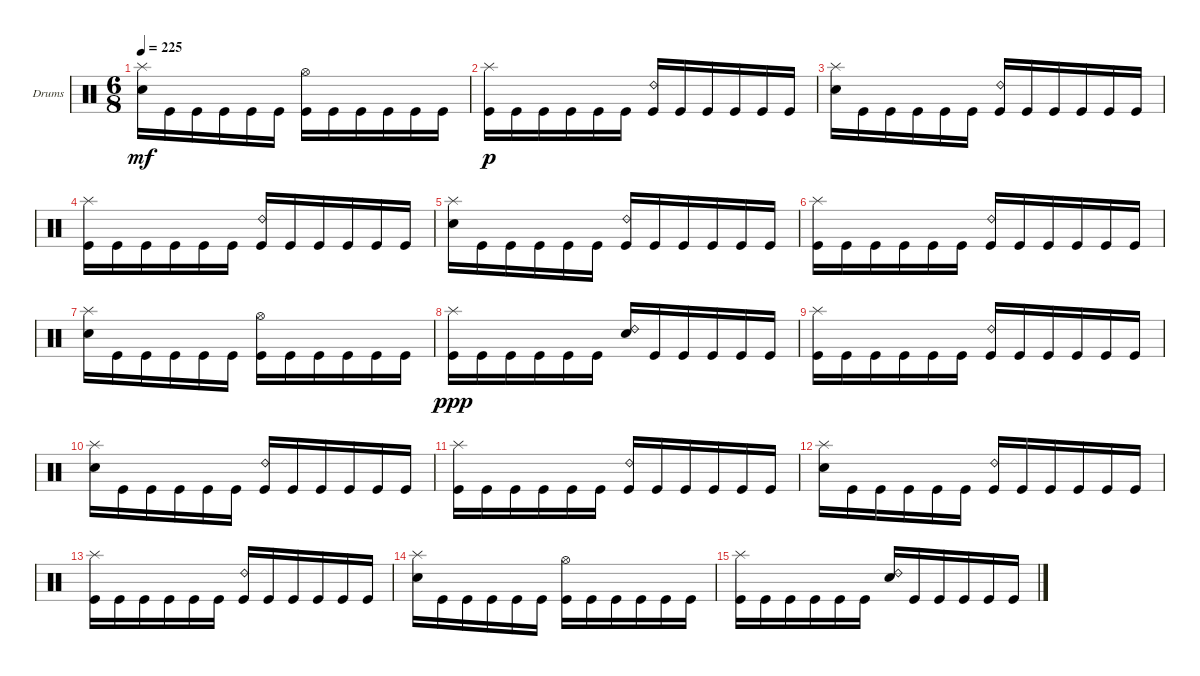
\bracketExtendMode groupsimilarinstruments
\firstSystemTrackNameOrientation horizontal
\otherSystemsTrackNameOrientation horizontal
\track ("Drumkit" "Drums") {solo instrument percussion}
\staff {score}
\articulation defaults
\ts (6 8)
\tempo 225
\clef neutral
\ks c
("Snare (hit) 2" "Splash (hit)").16{dy mf} "Kick (hit)".16 "Kick (hit)".16 "Kick (hit)".16 "Kick (hit)".16 "Kick (hit)".16 ("Kick (hit)" "Hi-Hat (open)").16 "Kick (hit)".16 "Kick (hit)".16 "Kick (hit)".16 "Kick (hit)".16 "Kick (hit)".16 |
("Kick (hit)" "Splash (hit)").16{dy p} "Kick (hit)".16 "Kick (hit)".16 "Kick (hit)".16 "Kick (hit)".16 "Kick (hit)".16 ("Kick (hit)" "Ride (bell) 2").16 "Kick (hit)".16 "Kick (hit)".16 "Kick (hit)".16 "Kick (hit)".16 "Kick (hit)".16 |
("Snare (hit) 2" "Splash (hit)").16 "Kick (hit)".16 "Kick (hit)".16 "Kick (hit)".16 "Kick (hit)".16 "Kick (hit)".16 ("Kick (hit)" "Ride (bell) 2").16 "Kick (hit)".16 "Kick (hit)".16 "Kick (hit)".16 "Kick (hit)".16 "Kick (hit)".16 |
("Kick (hit)" "Splash (hit)").16 "Kick (hit)".16 "Kick (hit)".16 "Kick (hit)".16 "Kick (hit)".16 "Kick (hit)".16 ("Kick (hit)" "Ride (bell) 2").16 "Kick (hit)".16 "Kick (hit)".16 "Kick (hit)".16 "Kick (hit)".16 "Kick (hit)".16 |
("Snare (hit) 2" "Splash (hit)").16 "Kick (hit)".16 "Kick (hit)".16 "Kick (hit)".16 "Kick (hit)".16 "Kick (hit)".16 ("Kick (hit)" "Ride (bell) 2").16 "Kick (hit)".16 "Kick (hit)".16 "Kick (hit)".16 "Kick (hit)".16 "Kick (hit)".16 |
("Kick (hit)" "Splash (hit)").16 "Kick (hit)".16 "Kick (hit)".16 "Kick (hit)".16 "Kick (hit)".16 "Kick (hit)".16 ("Kick (hit)" "Ride (bell) 2").16 "Kick (hit)".16 "Kick (hit)".16 "Kick (hit)".16 "Kick (hit)".16 "Kick (hit)".16 |
("Snare (hit) 2" "Splash (hit)").16 "Kick (hit)".16 "Kick (hit)".16 "Kick (hit)".16 "Kick (hit)".16 "Kick (hit)".16 ("Kick (hit)" "Hi-Hat (open)").16 "Kick (hit)".16 "Kick (hit)".16 "Kick (hit)".16 "Kick (hit)".16 "Kick (hit)".16 |
("Kick (hit)" "Splash (hit)").16{dy ppp} "Kick (hit)".16 "Kick (hit)".16 "Kick (hit)".16 "Kick (hit)".16 "Kick (hit)".16 ("Snare (hit) 2" "Ride (bell) 2").16 "Kick (hit)".16 "Kick (hit)".16 "Kick (hit)".16 "Kick (hit)".16 "Kick (hit)".16 |
("Kick (hit)" "Splash (hit)").16 "Kick (hit)".16 "Kick (hit)".16 "Kick (hit)".16 "Kick (hit)".16 "Kick (hit)".16 ("Kick (hit)" "Ride (bell) 2").16 "Kick (hit)".16 "Kick (hit)".16 "Kick (hit)".16 "Kick (hit)".16 "Kick (hit)".16 |
("Snare (hit) 2" "Splash (hit)").16 "Kick (hit)".16 "Kick (hit)".16 "Kick (hit)".16 "Kick (hit)".16 "Kick (hit)".16 ("Kick (hit)" "Ride (bell) 2").16 "Kick (hit)".16 "Kick (hit)".16 "Kick (hit)".16 "Kick (hit)".16 "Kick (hit)".16 |
("Kick (hit)" "Splash (hit)").16 "Kick (hit)".16 "Kick (hit)".16 "Kick (hit)".16 "Kick (hit)".16 "Kick (hit)".16 ("Kick (hit)" "Ride (bell) 2").16 "Kick (hit)".16 "Kick (hit)".16 "Kick (hit)".16 "Kick (hit)".16 "Kick (hit)".16 |
("Snare (hit) 2" "Splash (hit)").16 "Kick (hit)".16 "Kick (hit)".16 "Kick (hit)".16 "Kick (hit)".16 "Kick (hit)".16 ("Kick (hit)" "Ride (bell) 2").16 "Kick (hit)".16 "Kick (hit)".16 "Kick (hit)".16 "Kick (hit)".16 "Kick (hit)".16 |
("Kick (hit)" "Splash (hit)").16 "Kick (hit)".16 "Kick (hit)".16 "Kick (hit)".16 "Kick (hit)".16 "Kick (hit)".16 ("Kick (hit)" "Ride (bell) 2").16 "Kick (hit)".16 "Kick (hit)".16 "Kick (hit)".16 "Kick (hit)".16 "Kick (hit)".16 |
("Snare (hit) 2" "Splash (hit)").16 "Kick (hit)".16 "Kick (hit)".16 "Kick (hit)".16 "Kick (hit)".16 "Kick (hit)".16 ("Kick (hit)" "Hi-Hat (open)").16 "Kick (hit)".16 "Kick (hit)".16 "Kick (hit)".16 "Kick (hit)".16 "Kick (hit)".16 |
("Kick (hit)" "Splash (hit)").16 "Kick (hit)".16 "Kick (hit)".16 "Kick (hit)".16 "Kick (hit)".16 "Kick (hit)".16 ("Snare (hit) 2" "Ride (bell) 2").16 "Kick (hit)".16 "Kick (hit)".16 "Kick (hit)".16 "Kick (hit)".16 "Kick (hit)".16
